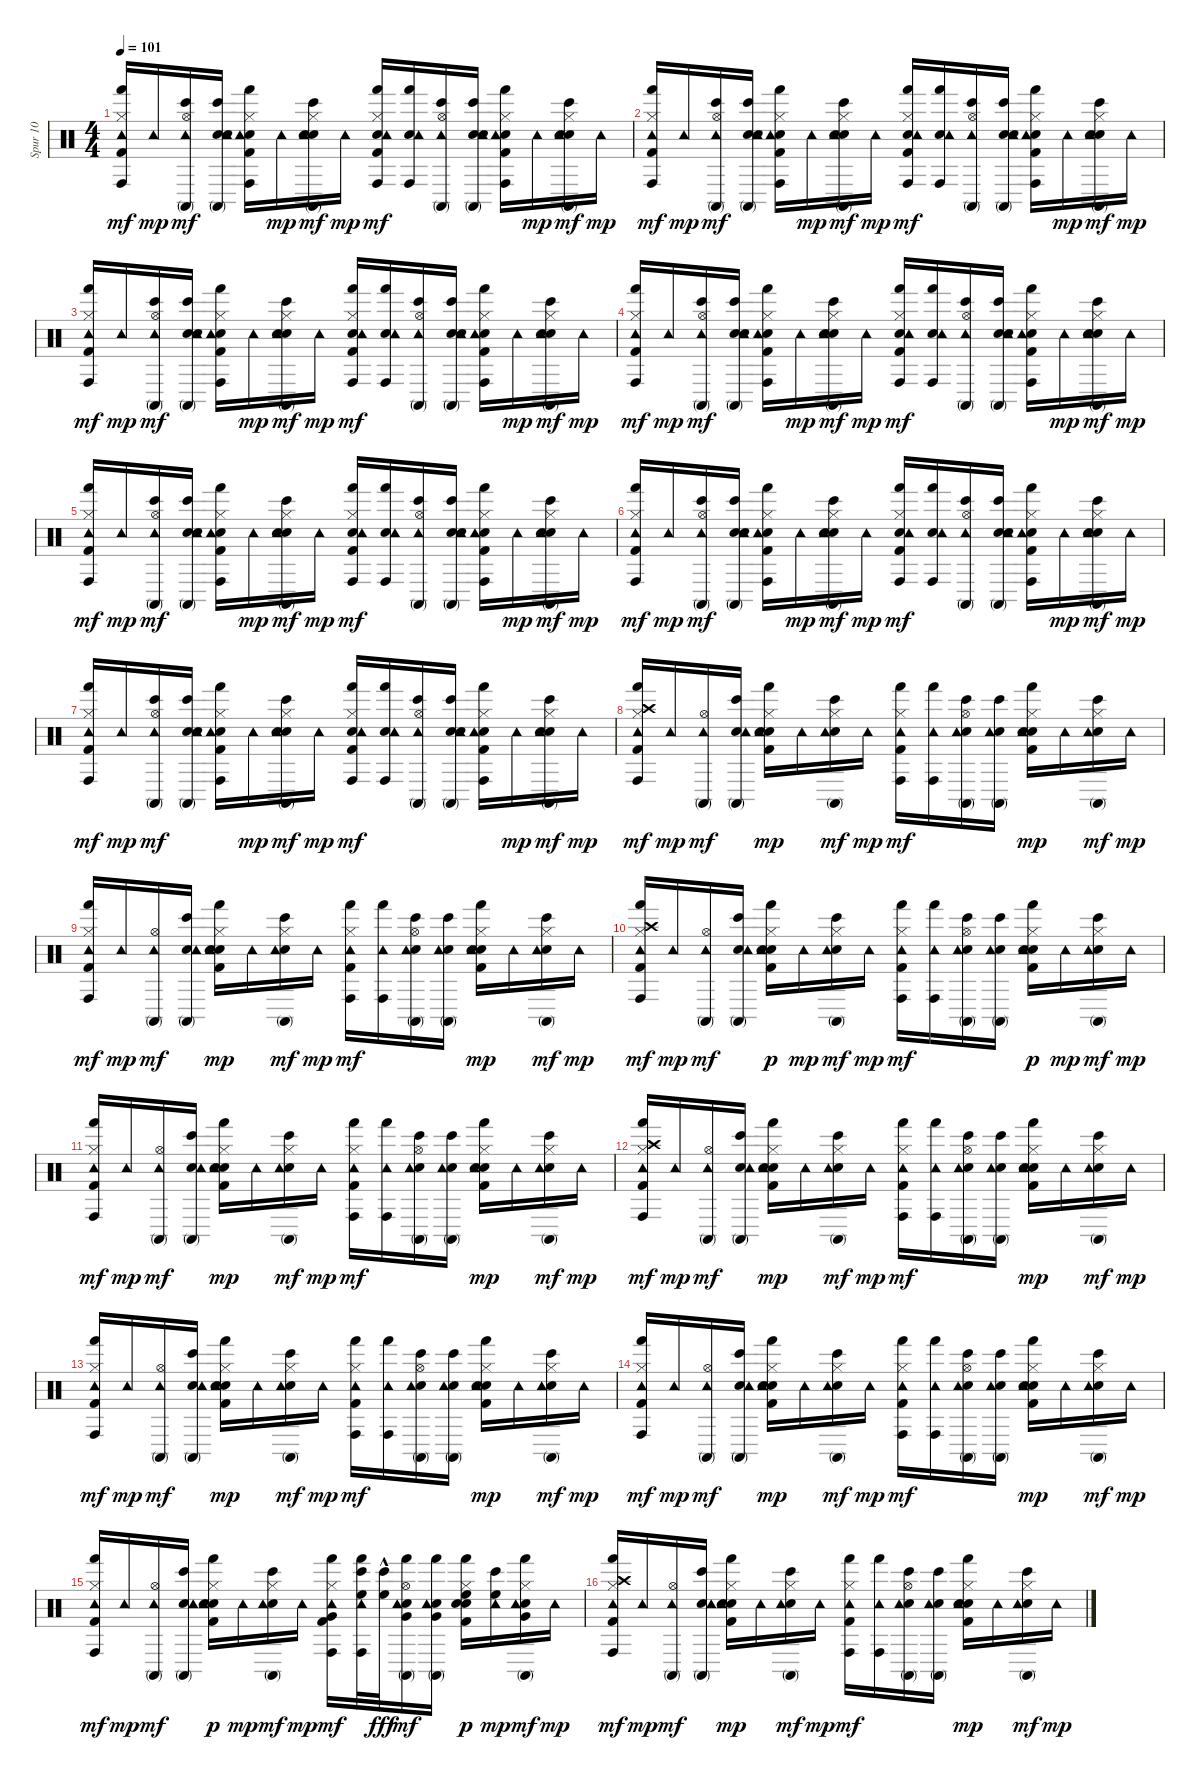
\track ("Spur 10" "Spur 10") {instrument percussion}
\staff {score}
\articulation defaults
\ts (4 4)
\tempo 101
\clef neutral
\ks c
("Kick (hit) 2" "Hi-Hat (closed)" "Hand (hit)" "Tambourine (hit)" "Conga high (hit)").16{dy mf} "Tambourine (hit)".16{dy mp} ("Hi-Hat (open)" "Bongo High (hit)" "Tambourine (hit)" "Conga high (mute)").16{dy mf} ("Snare (hit) 2" "Hand Clap (hit)" "Bongo High (hit)" "Tambourine (hit)" "Conga high (mute)").16 ("Kick (hit) 2" "Hi-Hat (closed)" "Hand Clap (hit)" "Hand (hit)" "Tambourine (hit)" "Conga high (hit)").16 "Tambourine (hit)".16{dy mp} ("Snare (hit) 2" "Hi-Hat (closed)" "Hand Clap (hit)" "Bongo High (hit)" "Tambourine (hit)" "Conga high (mute)").16{dy mf} "Tambourine (hit)".16{dy mp} ("Kick (hit) 2" "Hi-Hat (closed)" "Hand Clap (hit)" "Hand (hit)" "Tambourine (hit)" "Conga high (hit)").16{dy mf} ("Hand Clap (hit)" "Hand (hit)" "Tambourine (hit)" "Conga high (hit)").16 ("Hi-Hat (open)" "Bongo High (hit)" "Tambourine (hit)" "Conga high (mute)").16 ("Snare (hit) 2" "Hand Clap (hit)" "Bongo High (hit)" "Tambourine (hit)" "Conga high (mute)").16 ("Kick (hit) 2" "Hi-Hat (closed)" "Hand Clap (hit)" "Hand (hit)" "Tambourine (hit)" "Conga high (hit)").16 "Tambourine (hit)".16{dy mp} ("Snare (hit) 2" "Hi-Hat (closed)" "Hand Clap (hit)" "Bongo High (hit)" "Tambourine (hit)" "Conga high (mute)").16{dy mf} "Tambourine (hit)".16{dy mp} |
("Kick (hit) 2" "Hi-Hat (closed)" "Hand (hit)" "Tambourine (hit)" "Conga high (hit)").16{dy mf} "Tambourine (hit)".16{dy mp} ("Hi-Hat (open)" "Bongo High (hit)" "Tambourine (hit)" "Conga high (mute)").16{dy mf} ("Snare (hit) 2" "Hand Clap (hit)" "Bongo High (hit)" "Tambourine (hit)" "Conga high (mute)").16 ("Kick (hit) 2" "Hi-Hat (closed)" "Hand Clap (hit)" "Hand (hit)" "Tambourine (hit)" "Conga high (hit)").16 "Tambourine (hit)".16{dy mp} ("Snare (hit) 2" "Hi-Hat (closed)" "Hand Clap (hit)" "Bongo High (hit)" "Tambourine (hit)" "Conga high (mute)").16{dy mf} "Tambourine (hit)".16{dy mp} ("Kick (hit) 2" "Hi-Hat (closed)" "Hand Clap (hit)" "Hand (hit)" "Tambourine (hit)" "Conga high (hit)").16{dy mf} ("Hand Clap (hit)" "Hand (hit)" "Tambourine (hit)" "Conga high (hit)").16 ("Hi-Hat (open)" "Bongo High (hit)" "Tambourine (hit)" "Conga high (mute)").16 ("Snare (hit) 2" "Hand Clap (hit)" "Bongo High (hit)" "Tambourine (hit)" "Conga high (mute)").16 ("Kick (hit) 2" "Hi-Hat (closed)" "Hand Clap (hit)" "Hand (hit)" "Tambourine (hit)" "Conga high (hit)").16 "Tambourine (hit)".16{dy mp} ("Snare (hit) 2" "Hi-Hat (closed)" "Hand Clap (hit)" "Bongo High (hit)" "Tambourine (hit)" "Conga high (mute)").16{dy mf} "Tambourine (hit)".16{dy mp} |
("Kick (hit) 2" "Hi-Hat (closed)" "Hand (hit)" "Tambourine (hit)" "Conga high (hit)").16{dy mf} "Tambourine (hit)".16{dy mp} ("Hi-Hat (open)" "Bongo High (hit)" "Tambourine (hit)" "Conga high (mute)").16{dy mf} ("Snare (hit) 2" "Hand Clap (hit)" "Bongo High (hit)" "Tambourine (hit)" "Conga high (mute)").16 ("Kick (hit) 2" "Hi-Hat (closed)" "Hand Clap (hit)" "Hand (hit)" "Tambourine (hit)" "Conga high (hit)").16 "Tambourine (hit)".16{dy mp} ("Snare (hit) 2" "Hi-Hat (closed)" "Hand Clap (hit)" "Bongo High (hit)" "Tambourine (hit)" "Conga high (mute)").16{dy mf} "Tambourine (hit)".16{dy mp} ("Kick (hit) 2" "Hi-Hat (closed)" "Hand Clap (hit)" "Hand (hit)" "Tambourine (hit)" "Conga high (hit)").16{dy mf} ("Hand Clap (hit)" "Hand (hit)" "Tambourine (hit)" "Conga high (hit)").16 ("Hi-Hat (open)" "Bongo High (hit)" "Tambourine (hit)" "Conga high (mute)").16 ("Snare (hit) 2" "Hand Clap (hit)" "Bongo High (hit)" "Tambourine (hit)" "Conga high (mute)").16 ("Kick (hit) 2" "Hi-Hat (closed)" "Hand Clap (hit)" "Hand (hit)" "Tambourine (hit)" "Conga high (hit)").16 "Tambourine (hit)".16{dy mp} ("Snare (hit) 2" "Hi-Hat (closed)" "Hand Clap (hit)" "Bongo High (hit)" "Tambourine (hit)" "Conga high (mute)").16{dy mf} "Tambourine (hit)".16{dy mp} |
("Kick (hit) 2" "Hi-Hat (closed)" "Hand (hit)" "Tambourine (hit)" "Conga high (hit)").16{dy mf} "Tambourine (hit)".16{dy mp} ("Hi-Hat (open)" "Bongo High (hit)" "Tambourine (hit)" "Conga high (mute)").16{dy mf} ("Snare (hit) 2" "Hand Clap (hit)" "Bongo High (hit)" "Tambourine (hit)" "Conga high (mute)").16 ("Kick (hit) 2" "Hi-Hat (closed)" "Hand Clap (hit)" "Hand (hit)" "Tambourine (hit)" "Conga high (hit)").16 "Tambourine (hit)".16{dy mp} ("Snare (hit) 2" "Hi-Hat (closed)" "Hand Clap (hit)" "Bongo High (hit)" "Tambourine (hit)" "Conga high (mute)").16{dy mf} "Tambourine (hit)".16{dy mp} ("Kick (hit) 2" "Hi-Hat (closed)" "Hand Clap (hit)" "Hand (hit)" "Tambourine (hit)" "Conga high (hit)").16{dy mf} ("Hand Clap (hit)" "Hand (hit)" "Tambourine (hit)" "Conga high (hit)").16 ("Hi-Hat (open)" "Bongo High (hit)" "Tambourine (hit)" "Conga high (mute)").16 ("Snare (hit) 2" "Hand Clap (hit)" "Bongo High (hit)" "Tambourine (hit)" "Conga high (mute)").16 ("Kick (hit) 2" "Hi-Hat (closed)" "Hand Clap (hit)" "Hand (hit)" "Tambourine (hit)" "Conga high (hit)").16 "Tambourine (hit)".16{dy mp} ("Snare (hit) 2" "Hi-Hat (closed)" "Hand Clap (hit)" "Bongo High (hit)" "Tambourine (hit)" "Conga high (mute)").16{dy mf} "Tambourine (hit)".16{dy mp} |
("Kick (hit) 2" "Hi-Hat (closed)" "Hand (hit)" "Tambourine (hit)" "Conga high (hit)").16{dy mf} "Tambourine (hit)".16{dy mp} ("Hi-Hat (open)" "Bongo High (hit)" "Tambourine (hit)" "Conga high (mute)").16{dy mf} ("Snare (hit) 2" "Hand Clap (hit)" "Bongo High (hit)" "Tambourine (hit)" "Conga high (mute)").16 ("Kick (hit) 2" "Hi-Hat (closed)" "Hand Clap (hit)" "Hand (hit)" "Tambourine (hit)" "Conga high (hit)").16 "Tambourine (hit)".16{dy mp} ("Snare (hit) 2" "Hi-Hat (closed)" "Hand Clap (hit)" "Bongo High (hit)" "Tambourine (hit)" "Conga high (mute)").16{dy mf} "Tambourine (hit)".16{dy mp} ("Kick (hit) 2" "Hi-Hat (closed)" "Hand Clap (hit)" "Hand (hit)" "Tambourine (hit)" "Conga high (hit)").16{dy mf} ("Hand Clap (hit)" "Hand (hit)" "Tambourine (hit)" "Conga high (hit)").16 ("Hi-Hat (open)" "Bongo High (hit)" "Tambourine (hit)" "Conga high (mute)").16 ("Snare (hit) 2" "Hand Clap (hit)" "Bongo High (hit)" "Tambourine (hit)" "Conga high (mute)").16 ("Kick (hit) 2" "Hi-Hat (closed)" "Hand Clap (hit)" "Hand (hit)" "Tambourine (hit)" "Conga high (hit)").16 "Tambourine (hit)".16{dy mp} ("Snare (hit) 2" "Hi-Hat (closed)" "Hand Clap (hit)" "Bongo High (hit)" "Tambourine (hit)" "Conga high (mute)").16{dy mf} "Tambourine (hit)".16{dy mp} |
("Kick (hit) 2" "Hi-Hat (closed)" "Hand (hit)" "Tambourine (hit)" "Conga high (hit)").16{dy mf} "Tambourine (hit)".16{dy mp} ("Hi-Hat (open)" "Bongo High (hit)" "Tambourine (hit)" "Conga high (mute)").16{dy mf} ("Snare (hit) 2" "Hand Clap (hit)" "Bongo High (hit)" "Tambourine (hit)" "Conga high (mute)").16 ("Kick (hit) 2" "Hi-Hat (closed)" "Hand Clap (hit)" "Hand (hit)" "Tambourine (hit)" "Conga high (hit)").16 "Tambourine (hit)".16{dy mp} ("Snare (hit) 2" "Hi-Hat (closed)" "Hand Clap (hit)" "Bongo High (hit)" "Tambourine (hit)" "Conga high (mute)").16{dy mf} "Tambourine (hit)".16{dy mp} ("Kick (hit) 2" "Hi-Hat (closed)" "Hand Clap (hit)" "Hand (hit)" "Tambourine (hit)" "Conga high (hit)").16{dy mf} ("Hand Clap (hit)" "Hand (hit)" "Tambourine (hit)" "Conga high (hit)").16 ("Hi-Hat (open)" "Bongo High (hit)" "Tambourine (hit)" "Conga high (mute)").16 ("Snare (hit) 2" "Hand Clap (hit)" "Bongo High (hit)" "Tambourine (hit)" "Conga high (mute)").16 ("Kick (hit) 2" "Hi-Hat (closed)" "Hand Clap (hit)" "Hand (hit)" "Tambourine (hit)" "Conga high (hit)").16 "Tambourine (hit)".16{dy mp} ("Snare (hit) 2" "Hi-Hat (closed)" "Hand Clap (hit)" "Bongo High (hit)" "Tambourine (hit)" "Conga high (mute)").16{dy mf} "Tambourine (hit)".16{dy mp} |
("Kick (hit) 2" "Hi-Hat (closed)" "Hand (hit)" "Tambourine (hit)" "Conga high (hit)").16{dy mf} "Tambourine (hit)".16{dy mp} ("Hi-Hat (open)" "Bongo High (hit)" "Tambourine (hit)" "Conga high (mute)").16{dy mf} ("Snare (hit) 2" "Hand Clap (hit)" "Bongo High (hit)" "Tambourine (hit)" "Conga high (mute)").16 ("Kick (hit) 2" "Hi-Hat (closed)" "Hand Clap (hit)" "Hand (hit)" "Tambourine (hit)" "Conga high (hit)").16 "Tambourine (hit)".16{dy mp} ("Snare (hit) 2" "Hi-Hat (closed)" "Hand Clap (hit)" "Bongo High (hit)" "Tambourine (hit)" "Conga high (mute)").16{dy mf} "Tambourine (hit)".16{dy mp} ("Kick (hit) 2" "Hi-Hat (closed)" "Hand Clap (hit)" "Hand (hit)" "Tambourine (hit)" "Conga high (hit)").16{dy mf} ("Hand Clap (hit)" "Hand (hit)" "Tambourine (hit)" "Conga high (hit)").16 ("Hi-Hat (open)" "Bongo High (hit)" "Tambourine (hit)" "Conga high (mute)").16 ("Snare (hit) 2" "Hand Clap (hit)" "Bongo High (hit)" "Tambourine (hit)" "Conga high (mute)").16 ("Kick (hit) 2" "Hi-Hat (closed)" "Hand Clap (hit)" "Hand (hit)" "Tambourine (hit)" "Conga high (hit)").16 "Tambourine (hit)".16{dy mp} ("Snare (hit) 2" "Hi-Hat (closed)" "Hand Clap (hit)" "Bongo High (hit)" "Tambourine (hit)" "Conga high (mute)").16{dy mf} "Tambourine (hit)".16{dy mp} |
("Kick (hit) 2" "Hi-Hat (closed)" "Crash high (hit)" "Hand (hit)" "Tambourine (hit)" "Conga high (hit)").16{dy mf} "Tambourine (hit)".16{dy mp} ("Hi-Hat (open)" "Tambourine (hit)" "Conga high (mute)").16{dy mf} ("Hand Clap (hit)" "Bongo High (hit)" "Tambourine (hit)" "Conga high (mute)").16 ("Kick (hit) 2" "Snare (hit) 2" "Hi-Hat (closed)" "Hand Clap (hit)" "Hand (hit)" "Tambourine (hit)").16{dy mp} "Tambourine (hit)".16 ("Hi-Hat (closed)" "Hand Clap (hit)" "Bongo High (hit)" "Tambourine (hit)" "Conga high (mute)").16{dy mf} "Tambourine (hit)".16{dy mp} ("Kick (hit) 2" "Hi-Hat (closed)" "Hand (hit)" "Tambourine (hit)" "Conga high (hit)").16{dy mf} ("Hand (hit)" "Tambourine (hit)" "Conga high (hit)").16 ("Hi-Hat (open)" "Hand Clap (hit)" "Bongo High (hit)" "Tambourine (hit)" "Conga high (mute)").16 ("Hand Clap (hit)" "Bongo High (hit)" "Tambourine (hit)" "Conga high (mute)").16 ("Kick (hit) 2" "Snare (hit) 2" "Hi-Hat (closed)" "Hand Clap (hit)" "Hand (hit)" "Tambourine (hit)").16{dy mp} "Tambourine (hit)".16 ("Hi-Hat (closed)" "Hand Clap (hit)" "Bongo High (hit)" "Tambourine (hit)" "Conga high (mute)").16{dy mf} "Tambourine (hit)".16{dy mp} |
("Kick (hit) 2" "Hi-Hat (closed)" "Hand (hit)" "Tambourine (hit)" "Conga high (hit)").16{dy mf} "Tambourine (hit)".16{dy mp} ("Hi-Hat (open)" "Tambourine (hit)" "Conga high (mute)").16{dy mf} ("Hand Clap (hit)" "Bongo High (hit)" "Tambourine (hit)" "Conga high (mute)").16 ("Kick (hit) 2" "Snare (hit) 2" "Hi-Hat (closed)" "Hand Clap (hit)" "Hand (hit)" "Tambourine (hit)").16{dy mp} "Tambourine (hit)".16 ("Hi-Hat (closed)" "Hand Clap (hit)" "Bongo High (hit)" "Tambourine (hit)" "Conga high (mute)").16{dy mf} "Tambourine (hit)".16{dy mp} ("Kick (hit) 2" "Hi-Hat (closed)" "Hand (hit)" "Tambourine (hit)" "Conga high (hit)").16{dy mf} ("Hand (hit)" "Tambourine (hit)" "Conga high (hit)").16 ("Hi-Hat (open)" "Hand Clap (hit)" "Bongo High (hit)" "Tambourine (hit)" "Conga high (mute)").16 ("Hand Clap (hit)" "Bongo High (hit)" "Tambourine (hit)" "Conga high (mute)").16 ("Kick (hit) 2" "Snare (hit) 2" "Hi-Hat (closed)" "Hand Clap (hit)" "Hand (hit)" "Tambourine (hit)").16{dy mp} "Tambourine (hit)".16 ("Hi-Hat (closed)" "Hand Clap (hit)" "Bongo High (hit)" "Tambourine (hit)" "Conga high (mute)").16{dy mf} "Tambourine (hit)".16{dy mp} |
("Kick (hit) 2" "Hi-Hat (closed)" "Crash high (hit)" "Hand (hit)" "Tambourine (hit)" "Conga high (hit)").16{dy mf} "Tambourine (hit)".16{dy mp} ("Hi-Hat (open)" "Tambourine (hit)" "Conga high (mute)").16{dy mf} ("Hand Clap (hit)" "Bongo High (hit)" "Tambourine (hit)" "Conga high (mute)").16 ("Kick (hit) 2" "Snare (hit) 2" "Hi-Hat (closed)" "Hand Clap (hit)" "Hand (hit)" "Tambourine (hit)").16{dy p} "Tambourine (hit)".16{dy mp} ("Hi-Hat (closed)" "Hand Clap (hit)" "Bongo High (hit)" "Tambourine (hit)" "Conga high (mute)").16{dy mf} "Tambourine (hit)".16{dy mp} ("Kick (hit) 2" "Hi-Hat (closed)" "Hand (hit)" "Tambourine (hit)" "Conga high (hit)").16{dy mf} ("Hand (hit)" "Tambourine (hit)" "Conga high (hit)").16 ("Hi-Hat (open)" "Hand Clap (hit)" "Bongo High (hit)" "Tambourine (hit)" "Conga high (mute)").16 ("Hand Clap (hit)" "Bongo High (hit)" "Tambourine (hit)" "Conga high (mute)").16 ("Kick (hit) 2" "Snare (hit) 2" "Hi-Hat (closed)" "Hand Clap (hit)" "Hand (hit)" "Tambourine (hit)").16{dy p} "Tambourine (hit)".16{dy mp} ("Hi-Hat (closed)" "Hand Clap (hit)" "Bongo High (hit)" "Tambourine (hit)" "Conga high (mute)").16{dy mf} "Tambourine (hit)".16{dy mp} |
("Kick (hit) 2" "Hi-Hat (closed)" "Hand (hit)" "Tambourine (hit)" "Conga high (hit)").16{dy mf} "Tambourine (hit)".16{dy mp} ("Hi-Hat (open)" "Tambourine (hit)" "Conga high (mute)").16{dy mf} ("Hand Clap (hit)" "Bongo High (hit)" "Tambourine (hit)" "Conga high (mute)").16 ("Kick (hit) 2" "Snare (hit) 2" "Hi-Hat (closed)" "Hand Clap (hit)" "Hand (hit)" "Tambourine (hit)").16{dy mp} "Tambourine (hit)".16 ("Hi-Hat (closed)" "Hand Clap (hit)" "Bongo High (hit)" "Tambourine (hit)" "Conga high (mute)").16{dy mf} "Tambourine (hit)".16{dy mp} ("Kick (hit) 2" "Hi-Hat (closed)" "Hand (hit)" "Tambourine (hit)" "Conga high (hit)").16{dy mf} ("Hand (hit)" "Tambourine (hit)" "Conga high (hit)").16 ("Hi-Hat (open)" "Hand Clap (hit)" "Bongo High (hit)" "Tambourine (hit)" "Conga high (mute)").16 ("Hand Clap (hit)" "Bongo High (hit)" "Tambourine (hit)" "Conga high (mute)").16 ("Kick (hit) 2" "Snare (hit) 2" "Hi-Hat (closed)" "Hand Clap (hit)" "Hand (hit)" "Tambourine (hit)").16{dy mp} "Tambourine (hit)".16 ("Hi-Hat (closed)" "Hand Clap (hit)" "Bongo High (hit)" "Tambourine (hit)" "Conga high (mute)").16{dy mf} "Tambourine (hit)".16{dy mp} |
("Kick (hit) 2" "Hi-Hat (closed)" "Crash high (hit)" "Hand (hit)" "Tambourine (hit)" "Conga high (hit)").16{dy mf} "Tambourine (hit)".16{dy mp} ("Hi-Hat (open)" "Tambourine (hit)" "Conga high (mute)").16{dy mf} ("Hand Clap (hit)" "Bongo High (hit)" "Tambourine (hit)" "Conga high (mute)").16 ("Kick (hit) 2" "Snare (hit) 2" "Hi-Hat (closed)" "Hand Clap (hit)" "Hand (hit)" "Tambourine (hit)").16{dy mp} "Tambourine (hit)".16 ("Hi-Hat (closed)" "Hand Clap (hit)" "Bongo High (hit)" "Tambourine (hit)" "Conga high (mute)").16{dy mf} "Tambourine (hit)".16{dy mp} ("Kick (hit) 2" "Hi-Hat (closed)" "Hand (hit)" "Tambourine (hit)" "Conga high (hit)").16{dy mf} ("Hand (hit)" "Tambourine (hit)" "Conga high (hit)").16 ("Hi-Hat (open)" "Hand Clap (hit)" "Bongo High (hit)" "Tambourine (hit)" "Conga high (mute)").16 ("Hand Clap (hit)" "Bongo High (hit)" "Tambourine (hit)" "Conga high (mute)").16 ("Kick (hit) 2" "Snare (hit) 2" "Hi-Hat (closed)" "Hand Clap (hit)" "Hand (hit)" "Tambourine (hit)").16{dy mp} "Tambourine (hit)".16 ("Hi-Hat (closed)" "Hand Clap (hit)" "Bongo High (hit)" "Tambourine (hit)" "Conga high (mute)").16{dy mf} "Tambourine (hit)".16{dy mp} |
("Kick (hit) 2" "Hi-Hat (closed)" "Hand (hit)" "Tambourine (hit)" "Conga high (hit)").16{dy mf} "Tambourine (hit)".16{dy mp} ("Hi-Hat (open)" "Tambourine (hit)" "Conga high (mute)").16{dy mf} ("Hand Clap (hit)" "Bongo High (hit)" "Tambourine (hit)" "Conga high (mute)").16 ("Kick (hit) 2" "Snare (hit) 2" "Hi-Hat (closed)" "Hand Clap (hit)" "Hand (hit)" "Tambourine (hit)").16{dy mp} "Tambourine (hit)".16 ("Hi-Hat (closed)" "Hand Clap (hit)" "Bongo High (hit)" "Tambourine (hit)" "Conga high (mute)").16{dy mf} "Tambourine (hit)".16{dy mp} ("Kick (hit) 2" "Hi-Hat (closed)" "Hand (hit)" "Tambourine (hit)" "Conga high (hit)").16{dy mf} ("Hand (hit)" "Tambourine (hit)" "Conga high (hit)").16 ("Hi-Hat (open)" "Hand Clap (hit)" "Bongo High (hit)" "Tambourine (hit)" "Conga high (mute)").16 ("Hand Clap (hit)" "Bongo High (hit)" "Tambourine (hit)" "Conga high (mute)").16 ("Kick (hit) 2" "Snare (hit) 2" "Hi-Hat (closed)" "Hand Clap (hit)" "Hand (hit)" "Tambourine (hit)").16{dy mp} "Tambourine (hit)".16 ("Hi-Hat (closed)" "Hand Clap (hit)" "Bongo High (hit)" "Tambourine (hit)" "Conga high (mute)").16{dy mf} "Tambourine (hit)".16{dy mp} |
("Kick (hit) 2" "Hi-Hat (closed)" "Hand (hit)" "Tambourine (hit)" "Conga high (hit)").16{dy mf} "Tambourine (hit)".16{dy mp} ("Hi-Hat (open)" "Tambourine (hit)" "Conga high (mute)").16{dy mf} ("Hand Clap (hit)" "Bongo High (hit)" "Tambourine (hit)" "Conga high (mute)").16 ("Kick (hit) 2" "Snare (hit) 2" "Hi-Hat (closed)" "Hand Clap (hit)" "Hand (hit)" "Tambourine (hit)").16{dy mp} "Tambourine (hit)".16 ("Hi-Hat (closed)" "Hand Clap (hit)" "Bongo High (hit)" "Tambourine (hit)" "Conga high (mute)").16{dy mf} "Tambourine (hit)".16{dy mp} ("Kick (hit) 2" "Hi-Hat (closed)" "Hand (hit)" "Tambourine (hit)" "Conga high (hit)").16{dy mf} ("Hand (hit)" "Tambourine (hit)" "Conga high (hit)").16 ("Hi-Hat (open)" "Hand Clap (hit)" "Bongo High (hit)" "Tambourine (hit)" "Conga high (mute)").16 ("Hand Clap (hit)" "Bongo High (hit)" "Tambourine (hit)" "Conga high (mute)").16 ("Kick (hit) 2" "Snare (hit) 2" "Hi-Hat (closed)" "Hand Clap (hit)" "Hand (hit)" "Tambourine (hit)").16{dy mp} "Tambourine (hit)".16 ("Hi-Hat (closed)" "Hand Clap (hit)" "Bongo High (hit)" "Tambourine (hit)" "Conga high (mute)").16{dy mf} "Tambourine (hit)".16{dy mp} |
("Kick (hit) 2" "Hi-Hat (closed)" "Hand (hit)" "Tambourine (hit)" "Conga high (hit)").16{dy mf} "Tambourine (hit)".16{dy mp} ("Hi-Hat (open)" "Tambourine (hit)" "Conga high (mute)").16{dy mf} ("Hand Clap (hit)" "Bongo High (hit)" "Tambourine (hit)" "Conga high (mute)").16 ("Kick (hit) 2" "Snare (hit) 2" "Hi-Hat (closed)" "Hand Clap (hit)" "Hand (hit)" "Tambourine (hit)").16{dy p} "Tambourine (hit)".16{dy mp} ("Hi-Hat (closed)" "Hand Clap (hit)" "Bongo High (hit)" "Tambourine (hit)" "Conga high (mute)").16{dy mf} "Tambourine (hit)".16{dy mp} ("Kick (hit) 2" "Hi-Hat (closed)" "Very Low Tom (hit)" "Hand (hit)" "Tambourine (hit)" "Conga high (hit)").16{dy mf} ("High Floor Tom (hit)" "Hand (hit)" "Bongo High (hit)" "Tambourine (hit)" "Conga high (hit)").32 ("High Floor Tom (hit)" "Bongo High (hit)"{hac}).32{dy fff} ("Hi-Hat (open)" "Very Low Tom (hit)" "Hand Clap (hit)" "Hand (hit)" "Tambourine (hit)" "Conga high (mute)").16{dy mf} ("Very Low Tom (hit)" "Hand Clap (hit)" "Hand (hit)" "Tambourine (hit)" "Conga high (mute)").16 ("Kick (hit) 2" "Snare (hit) 2" "Hi-Hat (closed)" "High Floor Tom (hit)" "Hand Clap (hit)" "Hand (hit)").16{dy p} ("High Floor Tom (hit)" "Bongo High (hit)" "Tambourine (hit)").16{dy mp} ("Hi-Hat (closed)" "Very Low Tom (hit)" "Hand Clap (hit)" "Hand (hit)" "Tambourine (hit)" "Conga high (mute)").16{dy mf} "Tambourine (hit)".16{dy mp} |
("Kick (hit) 2" "Hi-Hat (closed)" "Crash high (hit)" "Hand (hit)" "Tambourine (hit)" "Conga high (hit)").16{dy mf} "Tambourine (hit)".16{dy mp} ("Hi-Hat (open)" "Tambourine (hit)" "Conga high (mute)").16{dy mf} ("Hand Clap (hit)" "Bongo High (hit)" "Tambourine (hit)" "Conga high (mute)").16 ("Kick (hit) 2" "Snare (hit) 2" "Hi-Hat (closed)" "Hand Clap (hit)" "Hand (hit)" "Tambourine (hit)").16{dy mp} "Tambourine (hit)".16 ("Hi-Hat (closed)" "Hand Clap (hit)" "Bongo High (hit)" "Tambourine (hit)" "Conga high (mute)").16{dy mf} "Tambourine (hit)".16{dy mp} ("Kick (hit) 2" "Hi-Hat (closed)" "Hand (hit)" "Tambourine (hit)" "Conga high (hit)").16{dy mf} ("Hand (hit)" "Tambourine (hit)" "Conga high (hit)").16 ("Hi-Hat (open)" "Hand Clap (hit)" "Bongo High (hit)" "Tambourine (hit)" "Conga high (mute)").16 ("Hand Clap (hit)" "Bongo High (hit)" "Tambourine (hit)" "Conga high (mute)").16 ("Kick (hit) 2" "Snare (hit) 2" "Hi-Hat (closed)" "Hand Clap (hit)" "Hand (hit)" "Tambourine (hit)").16{dy mp} "Tambourine (hit)".16 ("Hi-Hat (closed)" "Hand Clap (hit)" "Bongo High (hit)" "Tambourine (hit)" "Conga high (mute)").16{dy mf} "Tambourine (hit)".16{dy mp}
